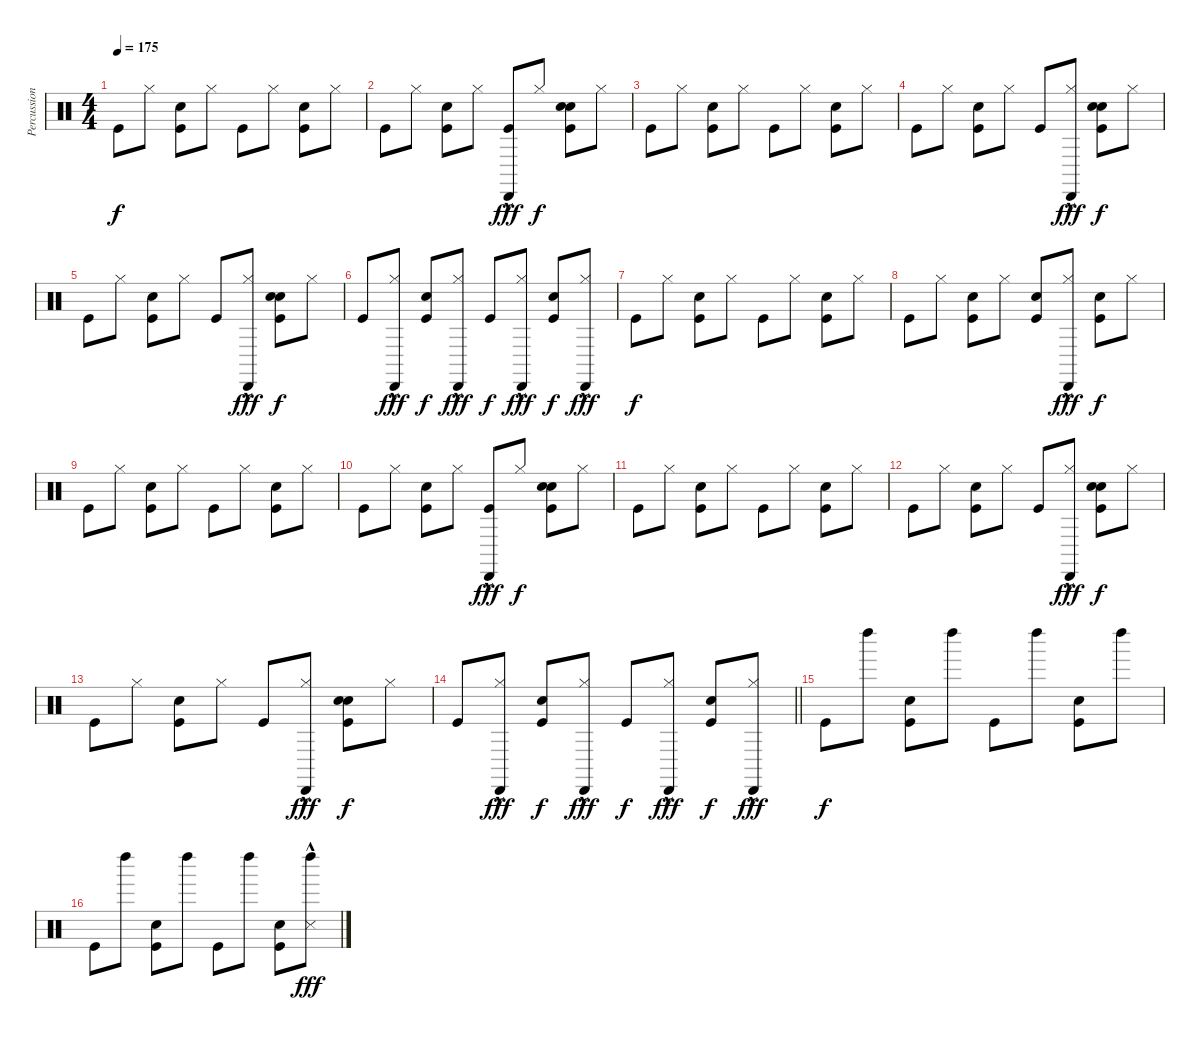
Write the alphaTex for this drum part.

\track ("Percussion" "Percussion") {instrument percussion}
\staff {score}
\articulation defaults
\ts (4 4)
\tempo 175
\clef neutral
\ks c "Kick (hit)".8{dy f} "Hi-Hat (closed)".8
("Kick (hit)" "Snare (hit) 2").8 "Hi-Hat (closed)".8 "Kick (hit)".8 "Hi-Hat (closed)".8 ("Kick (hit)" "Snare (hit) 2").8 "Hi-Hat (closed)".8 |
"Kick (hit)".8 "Hi-Hat (closed)".8 ("Kick (hit)" "Snare (hit) 2").8 "Hi-Hat (closed)".8 ("Kick (hit)" "Cabasa (hit)"{hac}).8{dy fff} "Hi-Hat (closed)".8{dy f} ("Kick (hit)" "Snare (hit) 2" "Hand Clap (hit)").8 "Hi-Hat (closed)".8 |
"Kick (hit)".8 "Hi-Hat (closed)".8 ("Kick (hit)" "Snare (hit) 2").8 "Hi-Hat (closed)".8 "Kick (hit)".8 "Hi-Hat (closed)".8 ("Kick (hit)" "Snare (hit) 2").8 "Hi-Hat (closed)".8 |
"Kick (hit)".8 "Hi-Hat (closed)".8 ("Kick (hit)" "Snare (hit) 2").8 "Hi-Hat (closed)".8 "Kick (hit)".8 ("Hi-Hat (closed)" "Cabasa (hit)"{hac}).8{dy fff} ("Kick (hit)" "Snare (hit) 2" "Hand Clap (hit)").8{dy f} "Hi-Hat (closed)".8 |
"Kick (hit)".8 "Hi-Hat (closed)".8 ("Kick (hit)" "Snare (hit) 2").8 "Hi-Hat (closed)".8 "Kick (hit)".8 ("Hi-Hat (closed)" "Cabasa (hit)"{hac}).8{dy fff} ("Kick (hit)" "Snare (hit) 2" "Hand Clap (hit)").8{dy f} "Hi-Hat (closed)".8 |
"Kick (hit)".8 ("Hi-Hat (closed)" "Cabasa (hit)"{hac}).8{dy fff} ("Kick (hit)" "Snare (hit) 2").8{dy f} ("Hi-Hat (closed)" "Cabasa (hit)"{hac}).8{dy fff} "Kick (hit)".8{dy f} ("Hi-Hat (closed)" "Cabasa (hit)"{hac}).8{dy fff} ("Kick (hit)" "Snare (hit) 2").8{dy f} ("Hi-Hat (closed)" "Cabasa (hit)"{hac}).8{dy fff} |
"Kick (hit)".8{dy f} "Hi-Hat (closed)".8 ("Kick (hit)" "Snare (hit) 2").8 "Hi-Hat (closed)".8 "Kick (hit)".8 "Hi-Hat (closed)".8 ("Kick (hit)" "Snare (hit) 2").8 "Hi-Hat (closed)".8 |
"Kick (hit)".8 "Hi-Hat (closed)".8 ("Kick (hit)" "Snare (hit) 2").8 "Hi-Hat (closed)".8 ("Kick (hit)" "Hand Clap (hit)").8 ("Hi-Hat (closed)" "Cabasa (hit)"{hac}).8{dy fff} ("Kick (hit)" "Snare (hit) 2").8{dy f} "Hi-Hat (closed)".8 |
"Kick (hit)".8 "Hi-Hat (closed)".8 ("Kick (hit)" "Snare (hit) 2").8 "Hi-Hat (closed)".8 "Kick (hit)".8 "Hi-Hat (closed)".8 ("Kick (hit)" "Snare (hit) 2").8 "Hi-Hat (closed)".8 |
"Kick (hit)".8 "Hi-Hat (closed)".8 ("Kick (hit)" "Snare (hit) 2").8 "Hi-Hat (closed)".8 ("Kick (hit)" "Cabasa (hit)"{hac}).8{dy fff} "Hi-Hat (closed)".8{dy f} ("Kick (hit)" "Snare (hit) 2" "Hand Clap (hit)").8 "Hi-Hat (closed)".8 |
"Kick (hit)".8 "Hi-Hat (closed)".8 ("Kick (hit)" "Snare (hit) 2").8 "Hi-Hat (closed)".8 "Kick (hit)".8 "Hi-Hat (closed)".8 ("Kick (hit)" "Snare (hit) 2").8 "Hi-Hat (closed)".8 |
"Kick (hit)".8 "Hi-Hat (closed)".8 ("Kick (hit)" "Snare (hit) 2").8 "Hi-Hat (closed)".8 "Kick (hit)".8 ("Hi-Hat (closed)" "Cabasa (hit)"{hac}).8{dy fff} ("Kick (hit)" "Snare (hit) 2" "Hand Clap (hit)").8{dy f} "Hi-Hat (closed)".8 |
"Kick (hit)".8 "Hi-Hat (closed)".8 ("Kick (hit)" "Snare (hit) 2").8 "Hi-Hat (closed)".8 "Kick (hit)".8 ("Hi-Hat (closed)" "Cabasa (hit)"{hac}).8{dy fff} ("Kick (hit)" "Snare (hit) 2" "Hand Clap (hit)").8{dy f} "Hi-Hat (closed)".8 |
\barLineRight lightlight "Kick (hit)".8
("Hi-Hat (closed)" "Cabasa (hit)"{hac}).8{dy fff} ("Kick (hit)" "Snare (hit) 2").8{dy f} ("Hi-Hat (closed)" "Cabasa (hit)"{hac}).8{dy fff} "Kick (hit)".8{dy f} ("Hi-Hat (closed)" "Cabasa (hit)"{hac}).8{dy fff} ("Kick (hit)" "Snare (hit) 2").8{dy f} ("Hi-Hat (closed)" "Cabasa (hit)"{hac}).8{dy fff} |
"Kick (hit)".8{dy f} "Left Maraca (hit)".8 ("Kick (hit)" "Hand Clap (hit)").8 "Left Maraca (hit)".8 "Kick (hit)".8 "Left Maraca (hit)".8 ("Kick (hit)" "Hand Clap (hit)").8 "Left Maraca (hit)".8 |
"Kick (hit)".8 "Left Maraca (hit)".8 ("Kick (hit)" "Hand Clap (hit)").8 "Left Maraca (hit)".8 "Kick (hit)".8 "Left Maraca (hit)".8 ("Kick (hit)" "Hand Clap (hit)").8 ("Left Maraca (hit)" "Metronome (hit)"{hac}).8{dy fff}
